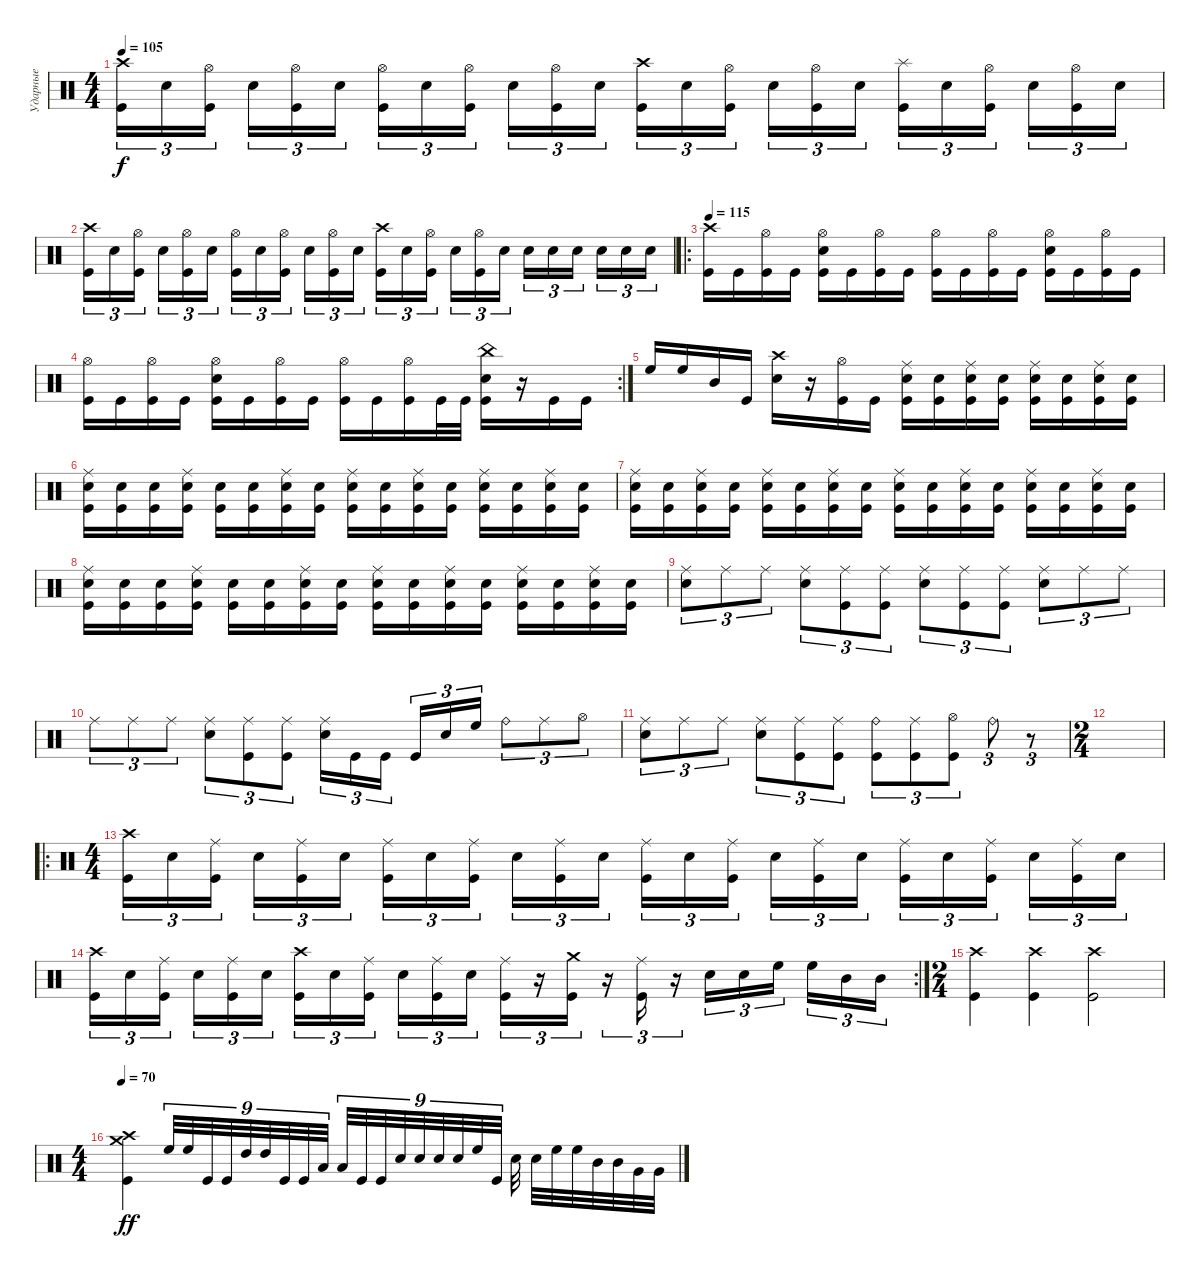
\track ("Ударные" "Ударные") {instrument percussion}
\staff {score}
\articulation defaults
\ts (4 4)
\tempo 105
\clef neutral
\ks c
("Crash high (hit)" "Kick (hit)").16{tu (3 2) dy f} "Snare (hit) 2".16{tu (3 2)} ("Hi-Hat (open)" "Kick (hit)").16{tu (3 2) beam splitsecondary} "Snare (hit) 2".16{tu (3 2)} ("Hi-Hat (open)" "Kick (hit)").16{tu (3 2)} "Snare (hit) 2".16{tu (3 2)} ("Hi-Hat (open)" "Kick (hit)").16{tu (3 2)} "Snare (hit) 2".16{tu (3 2)} ("Hi-Hat (open)" "Kick (hit)").16{tu (3 2) beam splitsecondary} "Snare (hit) 2".16{tu (3 2)} ("Hi-Hat (open)" "Kick (hit)").16{tu (3 2)} "Snare (hit) 2".16{tu (3 2)} ("Crash high (hit)" "Kick (hit)").16{tu (3 2)} "Snare (hit) 2".16{tu (3 2)} ("Hi-Hat (open)" "Kick (hit)").16{tu (3 2) beam splitsecondary} "Snare (hit) 2".16{tu (3 2)} ("Hi-Hat (open)" "Kick (hit)").16{tu (3 2)} "Snare (hit) 2".16{tu (3 2)} ("Splash (hit)" "Kick (hit)").16{tu (3 2)} "Snare (hit) 2".16{tu (3 2)} ("Hi-Hat (open)" "Kick (hit)").16{tu (3 2) beam splitsecondary} "Snare (hit) 2".16{tu (3 2)} ("Hi-Hat (open)" "Kick (hit)").16{tu (3 2)} "Snare (hit) 2".16{tu (3 2)} |
("Crash high (hit)" "Kick (hit)").16{tu (3 2)} "Snare (hit) 2".16{tu (3 2)} ("Hi-Hat (open)" "Kick (hit)").16{tu (3 2) beam splitsecondary} "Snare (hit) 2".16{tu (3 2)} ("Hi-Hat (open)" "Kick (hit)").16{tu (3 2)} "Snare (hit) 2".16{tu (3 2)} ("Hi-Hat (open)" "Kick (hit)").16{tu (3 2)} "Snare (hit) 2".16{tu (3 2)} ("Hi-Hat (open)" "Kick (hit)").16{tu (3 2) beam splitsecondary} "Snare (hit) 2".16{tu (3 2)} ("Hi-Hat (open)" "Kick (hit)").16{tu (3 2)} "Snare (hit) 2".16{tu (3 2)} ("Crash high (hit)" "Kick (hit)").16{tu (3 2)} "Snare (hit) 2".16{tu (3 2)} ("Hi-Hat (open)" "Kick (hit)").16{tu (3 2) beam splitsecondary} "Snare (hit) 2".16{tu (3 2)} ("Hi-Hat (open)" "Kick (hit)").16{tu (3 2)} "Snare (hit) 2".16{tu (3 2)} "Snare (hit) 2".16{tu (3 2)} "Snare (hit) 2".16{tu (3 2)} "Snare (hit) 2".16{tu (3 2) beam splitsecondary} "Snare (hit) 2".16{tu (3 2)} "Snare (hit) 2".16{tu (3 2)} "Snare (hit) 2".16{tu (3 2)} |
\ro
\tempo 115
("Crash high (hit)" "Kick (hit)").16 "Kick (hit)".16 ("Hi-Hat (open)" "Kick (hit)").16 "Kick (hit)".16 ("Hi-Hat (open)" "Snare (hit) 2" "Kick (hit)").16 "Kick (hit)".16 ("Hi-Hat (open)" "Kick (hit)").16 "Kick (hit)".16 ("Hi-Hat (open)" "Kick (hit)").16 "Kick (hit)".16 ("Hi-Hat (open)" "Kick (hit)").16 "Kick (hit)".16 ("Hi-Hat (open)" "Snare (hit) 2" "Kick (hit)").16 "Kick (hit)".16 ("Hi-Hat (open)" "Kick (hit)").16 "Kick (hit)".16 |
\rc 2
("Hi-Hat (open)" "Kick (hit)").16 "Kick (hit)".16 ("Hi-Hat (open)" "Kick (hit)").16 "Kick (hit)".16 ("Hi-Hat (open)" "Snare (hit) 2" "Kick (hit)").16 "Kick (hit)".16 ("Hi-Hat (open)" "Kick (hit)").16 "Kick (hit)".16 ("Hi-Hat (open)" "Kick (hit)").16 "Kick (hit)".16 ("Hi-Hat (open)" "Kick (hit)").16 "Kick (hit)".32 "Kick (hit)".32 ("China (hit)" "Snare (hit) 2" "Kick (hit)").16 r.16 "Kick (hit)".16 "Kick (hit)".16 |
"High Floor Tom (hit)".16 "High Floor Tom (hit)".16 "Mid Tom (hit)".16 "Kick (hit)".16 ("Crash high (hit)" "Snare (hit) 2").16 r.16 ("Hi-Hat (open)" "Kick (hit)").16 "Kick (hit)".16 ("Ride (middle)" "Snare (hit) 2" "Kick (hit)").16 ("Snare (hit) 2" "Kick (hit)").16 ("Ride (middle)" "Snare (hit) 2" "Kick (hit)").16 ("Snare (hit) 2" "Kick (hit)").16 ("Ride (middle)" "Snare (hit) 2" "Kick (hit)").16 ("Snare (hit) 2" "Kick (hit)").16 ("Ride (middle)" "Snare (hit) 2" "Kick (hit)").16 ("Snare (hit) 2" "Kick (hit)").16 |
("Ride (middle)" "Snare (hit) 2" "Kick (hit)").16 ("Snare (hit) 2" "Kick (hit)").16 ("Snare (hit) 2" "Kick (hit)").16 ("Ride (middle)" "Snare (hit) 2" "Kick (hit)").16 ("Snare (hit) 2" "Kick (hit)").16 ("Snare (hit) 2" "Kick (hit)").16 ("Ride (middle)" "Snare (hit) 2" "Kick (hit)").16 ("Snare (hit) 2" "Kick (hit)").16 ("Ride (middle)" "Snare (hit) 2" "Kick (hit)").16 ("Snare (hit) 2" "Kick (hit)").16 ("Ride (middle)" "Snare (hit) 2" "Kick (hit)").16 ("Snare (hit) 2" "Kick (hit)").16 ("Ride (middle)" "Snare (hit) 2" "Kick (hit)").16 ("Snare (hit) 2" "Kick (hit)").16 ("Ride (middle)" "Snare (hit) 2" "Kick (hit)").16 ("Snare (hit) 2" "Kick (hit)").16 |
("Ride (middle)" "Snare (hit) 2" "Kick (hit)").16 ("Snare (hit) 2" "Kick (hit)").16 ("Ride (middle)" "Snare (hit) 2" "Kick (hit)").16 ("Snare (hit) 2" "Kick (hit)").16 ("Ride (middle)" "Snare (hit) 2" "Kick (hit)").16 ("Snare (hit) 2" "Kick (hit)").16 ("Ride (middle)" "Snare (hit) 2" "Kick (hit)").16 ("Snare (hit) 2" "Kick (hit)").16 ("Ride (middle)" "Snare (hit) 2" "Kick (hit)").16 ("Snare (hit) 2" "Kick (hit)").16 ("Ride (middle)" "Snare (hit) 2" "Kick (hit)").16 ("Snare (hit) 2" "Kick (hit)").16 ("Ride (middle)" "Snare (hit) 2" "Kick (hit)").16 ("Snare (hit) 2" "Kick (hit)").16 ("Ride (middle)" "Snare (hit) 2" "Kick (hit)").16 ("Snare (hit) 2" "Kick (hit)").16 |
("Ride (middle)" "Snare (hit) 2" "Kick (hit)").16 ("Snare (hit) 2" "Kick (hit)").16 ("Snare (hit) 2" "Kick (hit)").16 ("Ride (middle)" "Snare (hit) 2" "Kick (hit)").16 ("Snare (hit) 2" "Kick (hit)").16 ("Snare (hit) 2" "Kick (hit)").16 ("Ride (middle)" "Snare (hit) 2" "Kick (hit)").16 ("Snare (hit) 2" "Kick (hit)").16 ("Ride (middle)" "Snare (hit) 2" "Kick (hit)").16 ("Snare (hit) 2" "Kick (hit)").16 ("Ride (middle)" "Snare (hit) 2" "Kick (hit)").16 ("Snare (hit) 2" "Kick (hit)").16 ("Ride (middle)" "Snare (hit) 2" "Kick (hit)").16 ("Snare (hit) 2" "Kick (hit)").16 ("Ride (middle)" "Snare (hit) 2" "Kick (hit)").16 ("Snare (hit) 2" "Kick (hit)").16 |
("Ride (middle)" "Snare (hit) 2").8{tu (3 2)} "Ride (middle)".8{tu (3 2)} "Ride (middle)".8{tu (3 2)} ("Ride (middle)" "Snare (hit) 2").8{tu (3 2)} ("Ride (middle)" "Kick (hit)").8{tu (3 2)} ("Ride (middle)" "Kick (hit)").8{tu (3 2)} ("Ride (middle)" "Snare (hit) 2").8{tu (3 2)} ("Ride (middle)" "Kick (hit)").8{tu (3 2)} ("Ride (middle)" "Kick (hit)").8{tu (3 2)} ("Ride (middle)" "Snare (hit) 2").8{tu (3 2)} "Ride (middle)".8{tu (3 2)} "Ride (middle)".8{tu (3 2)} |
"Ride (middle)".8{tu (3 2)} "Ride (middle)".8{tu (3 2)} "Ride (middle)".8{tu (3 2)} ("Ride (middle)" "Snare (hit) 2").8{tu (3 2)} ("Ride (middle)" "Kick (hit)").8{tu (3 2)} ("Ride (middle)" "Kick (hit)").8{tu (3 2)} ("Ride (middle)" "Snare (hit) 2").16{tu (3 2)} "Kick (hit)".16{tu (3 2)} "Kick (hit)".16{tu (3 2) beam splitsecondary} "Kick (hit)".16{tu (3 2)} "Snare (hit) 2".16{tu (3 2)} "High Floor Tom (hit)".16{tu (3 2)} "Ride (bell)".8{tu (3 2)} "Ride (middle)".8{tu (3 2)} "Hi-Hat (open)".8{tu (3 2)} |
("Ride (middle)" "Snare (hit) 2").8{tu (3 2)} "Ride (middle)".8{tu (3 2)} "Ride (middle)".8{tu (3 2)} ("Ride (middle)" "Snare (hit) 2").8{tu (3 2)} ("Ride (middle)" "Kick (hit)").8{tu (3 2)} ("Ride (middle)" "Kick (hit)").8{tu (3 2)} ("Ride (bell)" "Kick (hit)").8{tu (3 2)} ("Ride (middle)" "Kick (hit)").8{tu (3 2)} ("Hi-Hat (open)" "Kick (hit)").8{tu (3 2)} "Ride (bell)".8{tu (3 2)} r.8{tu (3 2)} |
\ts (2 4)
|
\ro
\ts (4 4)
("Crash high (hit)" "Kick (hit)").16{tu (3 2)} "Snare (hit) 2".16{tu (3 2)} ("Ride (middle)" "Kick (hit)").16{tu (3 2) beam splitsecondary} "Snare (hit) 2".16{tu (3 2)} ("Ride (middle)" "Kick (hit)").16{tu (3 2)} "Snare (hit) 2".16{tu (3 2)} ("Ride (middle)" "Kick (hit)").16{tu (3 2)} "Snare (hit) 2".16{tu (3 2)} ("Ride (middle)" "Kick (hit)").16{tu (3 2) beam splitsecondary} "Snare (hit) 2".16{tu (3 2)} ("Ride (middle)" "Kick (hit)").16{tu (3 2)} "Snare (hit) 2".16{tu (3 2)} ("Ride (middle)" "Kick (hit)").16{tu (3 2)} "Snare (hit) 2".16{tu (3 2)} ("Ride (middle)" "Kick (hit)").16{tu (3 2) beam splitsecondary} "Snare (hit) 2".16{tu (3 2)} ("Ride (middle)" "Kick (hit)").16{tu (3 2)} "Snare (hit) 2".16{tu (3 2)} ("Ride (middle)" "Kick (hit)").16{tu (3 2)} "Snare (hit) 2".16{tu (3 2)} ("Ride (middle)" "Kick (hit)").16{tu (3 2) beam splitsecondary} "Snare (hit) 2".16{tu (3 2)} ("Ride (middle)" "Kick (hit)").16{tu (3 2)} "Snare (hit) 2".16{tu (3 2)} |
\rc 2
("Crash high (hit)" "Kick (hit)").16{tu (3 2)} "Snare (hit) 2".16{tu (3 2)} ("Ride (middle)" "Kick (hit)").16{tu (3 2) beam splitsecondary} "Snare (hit) 2".16{tu (3 2)} ("Ride (middle)" "Kick (hit)").16{tu (3 2)} "Snare (hit) 2".16{tu (3 2)} ("Crash high (hit)" "Kick (hit)").16{tu (3 2)} "Snare (hit) 2".16{tu (3 2)} ("Ride (middle)" "Kick (hit)").16{tu (3 2) beam splitsecondary} "Snare (hit) 2".16{tu (3 2)} ("Ride (middle)" "Kick (hit)").16{tu (3 2)} "Snare (hit) 2".16{tu (3 2)} ("Ride (middle)" "Kick (hit)").16{tu (3 2)} r.16{tu (3 2)} ("Crash medium (hit)" "Kick (hit)").16{tu (3 2)} r.16{tu (3 2)} ("Ride (middle)" "Kick (hit)").16{tu (3 2)} r.16{tu (3 2)} "Snare (hit) 2".16{tu (3 2)} "Snare (hit) 2".16{tu (3 2)} "High Floor Tom (hit)".16{tu (3 2) beam splitsecondary} "High Floor Tom (hit)".16{tu (3 2)} "Mid Tom (hit)".16{tu (3 2)} "Mid Tom (hit)".16{tu (3 2)} |
\ts (2 4)
("Crash high (hit)" "Kick (hit)").4 ("Crash high (hit)" "Kick (hit)").4 ("Crash high (hit)" "Kick (hit)").2 |
\ts (4 4)
\tempo 70
("Crash medium (hit)" "Crash high (hit)" "Kick (hit)").4{dy ff} "High Floor Tom (hit)".32{tu (9 8)} "High Floor Tom (hit)".32{tu (9 8)} "Kick (hit)".32{tu (9 8)} "Kick (hit)".32{tu (9 8)} "High Tom (hit)".32{tu (9 8)} "High Tom (hit)".32{tu (9 8)} "Kick (hit)".32{tu (9 8)} "Kick (hit)".32{tu (9 8)} "Low Tom (hit)".32{tu (9 8)} "Low Tom (hit)".32{tu (9 8)} "Kick (hit)".32{tu (9 8)} "Kick (hit)".32{tu (9 8)} "Snare (hit) 2".32{tu (9 8)} "Snare (hit) 2".32{tu (9 8)} "Snare (hit) 2".32{tu (9 8)} "Snare (hit) 2".32{tu (9 8)} "High Floor Tom (hit)".32{tu (9 8)} "Kick (hit)".32{tu (9 8)} "Snare (hit) 2".32 "Snare (hit) 2".32 "High Floor Tom (hit)".32 "High Floor Tom (hit)".32 "Mid Tom (hit)".32 "Mid Tom (hit)".32 "Very Low Tom (hit)".32 "Very Low Tom (hit)".32
